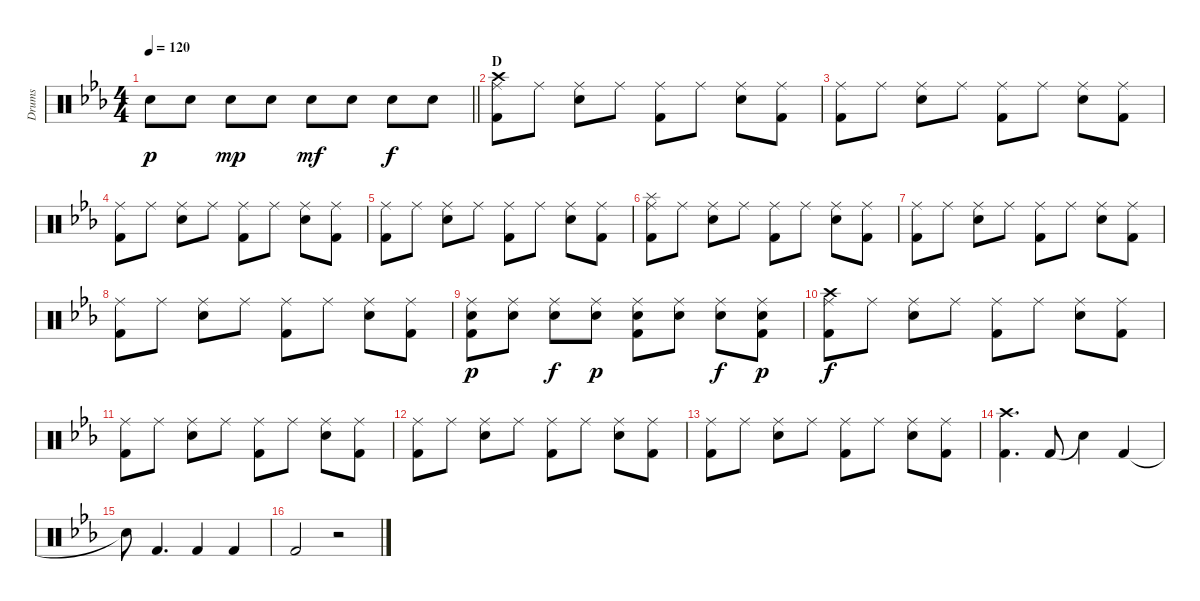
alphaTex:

\track ("Drums" "Drums") {instrument percussion}
\staff {score}
\articulation defaults
\ts (4 4)
\tempo 120
\clef neutral
\barLineRight lightlight
\ks eb "Electric Snare (hit)".8{dy p} "Electric Snare (hit)".8 "Electric Snare (hit)".8{dy mp} "Electric Snare (hit)".8 "Electric Snare (hit)".8{dy mf} "Electric Snare (hit)".8 "Electric Snare (hit)".8{dy f} "Electric Snare (hit)".8
|
\section ("" "D")
("Crash high (hit)" "Ride (middle)" "Kick (hit) 2").8 "Ride (middle)".8 ("Ride (middle)" "Electric Snare (hit)").8 "Ride (middle)".8 ("Ride (middle)" "Kick (hit) 2").8 "Ride (middle)".8 ("Ride (middle)" "Electric Snare (hit)").8 ("Ride (middle)" "Kick (hit) 2").8 |
("Ride (middle)" "Kick (hit) 2").8 "Ride (middle)".8 ("Ride (middle)" "Electric Snare (hit)").8 "Ride (middle)".8 ("Ride (middle)" "Kick (hit) 2").8 "Ride (middle)".8 ("Ride (middle)" "Electric Snare (hit)").8 ("Ride (middle)" "Kick (hit) 2").8 |
("Ride (middle)" "Kick (hit) 2").8 "Ride (middle)".8 ("Ride (middle)" "Electric Snare (hit)").8 "Ride (middle)".8 ("Ride (middle)" "Kick (hit) 2").8 "Ride (middle)".8 ("Ride (middle)" "Electric Snare (hit)").8 ("Ride (middle)" "Kick (hit) 2").8 |
("Ride (middle)" "Kick (hit) 2").8 "Ride (middle)".8 ("Ride (middle)" "Electric Snare (hit)").8 "Ride (middle)".8 ("Ride (middle)" "Kick (hit) 2").8 "Ride (middle)".8 ("Ride (middle)" "Electric Snare (hit)").8 ("Ride (middle)" "Kick (hit) 2").8 |
("Splash (hit)" "Ride (middle)" "Kick (hit) 2").8 "Ride (middle)".8 ("Ride (middle)" "Electric Snare (hit)").8 "Ride (middle)".8 ("Ride (middle)" "Kick (hit) 2").8 "Ride (middle)".8 ("Ride (middle)" "Electric Snare (hit)").8 ("Ride (middle)" "Kick (hit) 2").8 |
("Ride (middle)" "Kick (hit) 2").8 "Ride (middle)".8 ("Ride (middle)" "Electric Snare (hit)").8 "Ride (middle)".8 ("Ride (middle)" "Kick (hit) 2").8 "Ride (middle)".8 ("Ride (middle)" "Electric Snare (hit)").8 ("Ride (middle)" "Kick (hit) 2").8 |
("Ride (middle)" "Kick (hit) 2").8 "Ride (middle)".8 ("Ride (middle)" "Electric Snare (hit)").8 "Ride (middle)".8 ("Ride (middle)" "Kick (hit) 2").8 "Ride (middle)".8 ("Ride (middle)" "Electric Snare (hit)").8 ("Ride (middle)" "Kick (hit) 2").8 |
("Ride (middle)" "Electric Snare (hit)" "Kick (hit) 2").8{dy p} ("Ride (middle)" "Electric Snare (hit)").8 ("Ride (middle)" "Electric Snare (hit)").8{dy f} ("Ride (middle)" "Electric Snare (hit)").8{dy p} ("Ride (middle)" "Electric Snare (hit)" "Kick (hit) 2").8 ("Ride (middle)" "Electric Snare (hit)").8 ("Ride (middle)" "Electric Snare (hit)").8{dy f} ("Ride (middle)" "Electric Snare (hit)" "Kick (hit) 2").8{dy p} |
("Crash high (hit)" "Ride (middle)" "Kick (hit) 2").8{dy f} "Ride (middle)".8 ("Ride (middle)" "Electric Snare (hit)").8 "Ride (middle)".8 ("Ride (middle)" "Kick (hit) 2").8 "Ride (middle)".8 ("Ride (middle)" "Electric Snare (hit)").8 ("Ride (middle)" "Kick (hit) 2").8 |
("Ride (middle)" "Kick (hit) 2").8 "Ride (middle)".8 ("Ride (middle)" "Electric Snare (hit)").8 "Ride (middle)".8 ("Ride (middle)" "Kick (hit) 2").8 "Ride (middle)".8 ("Ride (middle)" "Electric Snare (hit)").8 ("Ride (middle)" "Kick (hit) 2").8 |
("Ride (middle)" "Kick (hit) 2").8 "Ride (middle)".8 ("Ride (middle)" "Electric Snare (hit)").8 "Ride (middle)".8 ("Ride (middle)" "Kick (hit) 2").8 "Ride (middle)".8 ("Ride (middle)" "Electric Snare (hit)").8 ("Ride (middle)" "Kick (hit) 2").8 |
("Ride (middle)" "Kick (hit) 2").8 "Ride (middle)".8 ("Ride (middle)" "Electric Snare (hit)").8 "Ride (middle)".8 ("Ride (middle)" "Kick (hit) 2").8 "Ride (middle)".8 ("Ride (middle)" "Electric Snare (hit)").8 ("Ride (middle)" "Kick (hit) 2").8 |
("Crash high (hit)" "Kick (hit) 2").4{d} "Kick (hit) 2".8 "Snare (hit)"{t}.4 "Kick (hit) 2".4 |
"Snare (hit)"{t}.8 "Kick (hit) 2".4{d} "Kick (hit) 2".4 "Kick (hit) 2".4 |
"Kick (hit) 2".2 r.2
